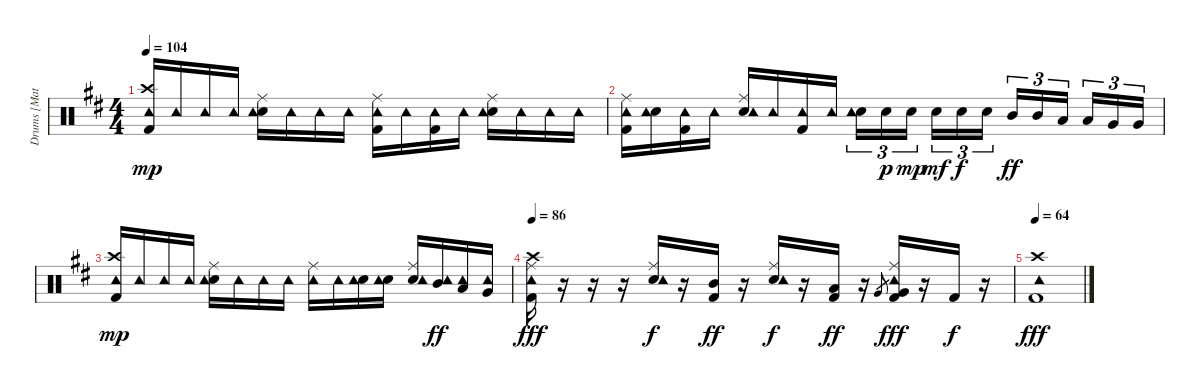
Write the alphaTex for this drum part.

\track ("Drums [Matt]" "Drums [Mat") {instrument percussion}
\staff {score}
\articulation defaults
\ts (4 4)
\tempo 104
\clef neutral
\ks d
("Kick (hit) 2" "Crash high (hit)" "Tambourine (hit)").16{dy mp} "Tambourine (hit)".16 "Tambourine (hit)".16 "Tambourine (hit)".16 ("Ride (middle)" "Snare (hit) 2" "Tambourine (hit)").16 "Tambourine (hit)".16 "Tambourine (hit)".16 "Tambourine (hit)".16 ("Ride (middle)" "Kick (hit) 2" "Tambourine (hit)").16 "Tambourine (hit)".16 ("Kick (hit) 2" "Tambourine (hit)").16 "Tambourine (hit)".16 ("Ride (middle)" "Snare (hit) 2" "Tambourine (hit)").16 "Tambourine (hit)".16 "Tambourine (hit)".16 "Tambourine (hit)".16 |
("Ride (middle)" "Kick (hit) 2" "Tambourine (hit)").16 ("Snare (hit) 2" "Tambourine (hit)").16 ("Kick (hit) 2" "Tambourine (hit)").16 "Tambourine (hit)".16 ("Ride (middle)" "Snare (hit) 2" "Tambourine (hit)").16 "Tambourine (hit)".16 ("Kick (hit) 2" "Tambourine (hit)").16 "Tambourine (hit)".16 ("Snare (hit) 2" "Tambourine (hit)").16{tu (3 2)} "Snare (hit) 2".16{tu (3 2) dy p} "Snare (hit) 2".16{tu (3 2) dy mp} "Snare (hit) 2".16{tu (3 2) dy mf} "Snare (hit) 2".16{tu (3 2) dy f} "Snare (hit) 2".16{tu (3 2)} "Mid Tom (hit)".16{tu (3 2) dy ff} "Mid Tom (hit)".16{tu (3 2)} "Low Tom (hit)".16{tu (3 2)} "Low Tom (hit)".16{tu (3 2)} "Very Low Tom (hit)".16{tu (3 2)} "Very Low Tom (hit)".16{tu (3 2)} |
("Kick (hit) 2" "Crash high (hit)" "Tambourine (hit)").16{dy mp} "Tambourine (hit)".16 "Tambourine (hit)".16 "Tambourine (hit)".16 ("Ride (middle)" "Snare (hit) 2" "Tambourine (hit)").16 "Tambourine (hit)".16 "Tambourine (hit)".16 "Tambourine (hit)".16 ("Ride (middle)" "Tambourine (hit)").16 "Tambourine (hit)".16 ("Snare (hit) 2" "Tambourine (hit)").16 ("Snare (hit) 2" "Tambourine (hit)").16 ("Ride (middle)" "Snare (hit) 2" "Tambourine (hit)").16 ("Tambourine (hit)" "Mid Tom (hit)").16{dy ff} ("Tambourine (hit)" "Low Tom (hit)").16 ("Tambourine (hit)" "Very Low Tom (hit)").16 |
\tempo 86
("Ride (middle)" "Kick (hit) 2" "Crash high (hit)" "Tambourine (hit)").16{dy fff} r.16 r.16 r.16 ("Ride (middle)" "Snare (hit) 2" "Tambourine (hit)").16{dy f} r.16 ("Kick (hit) 2" "Mid Tom (hit)").16{dy ff} r.16 ("Ride (middle)" "Snare (hit) 2" "Tambourine (hit)").16{dy f} r.16 ("Kick (hit) 2" "Low Tom (hit)").16{dy ff} r.16 "Very Low Tom (hit)".8{gr} ("Ride (middle)" "Kick (hit) 2" "Tambourine (hit)" "Very Low Tom (hit)").16{dy fff} r.16 "Kick (hit) 2".16{dy f} r.16 |
\tempo 64
("Kick (hit) 2" "Crash high (hit)" "Tambourine (hit)").1{dy fff}
